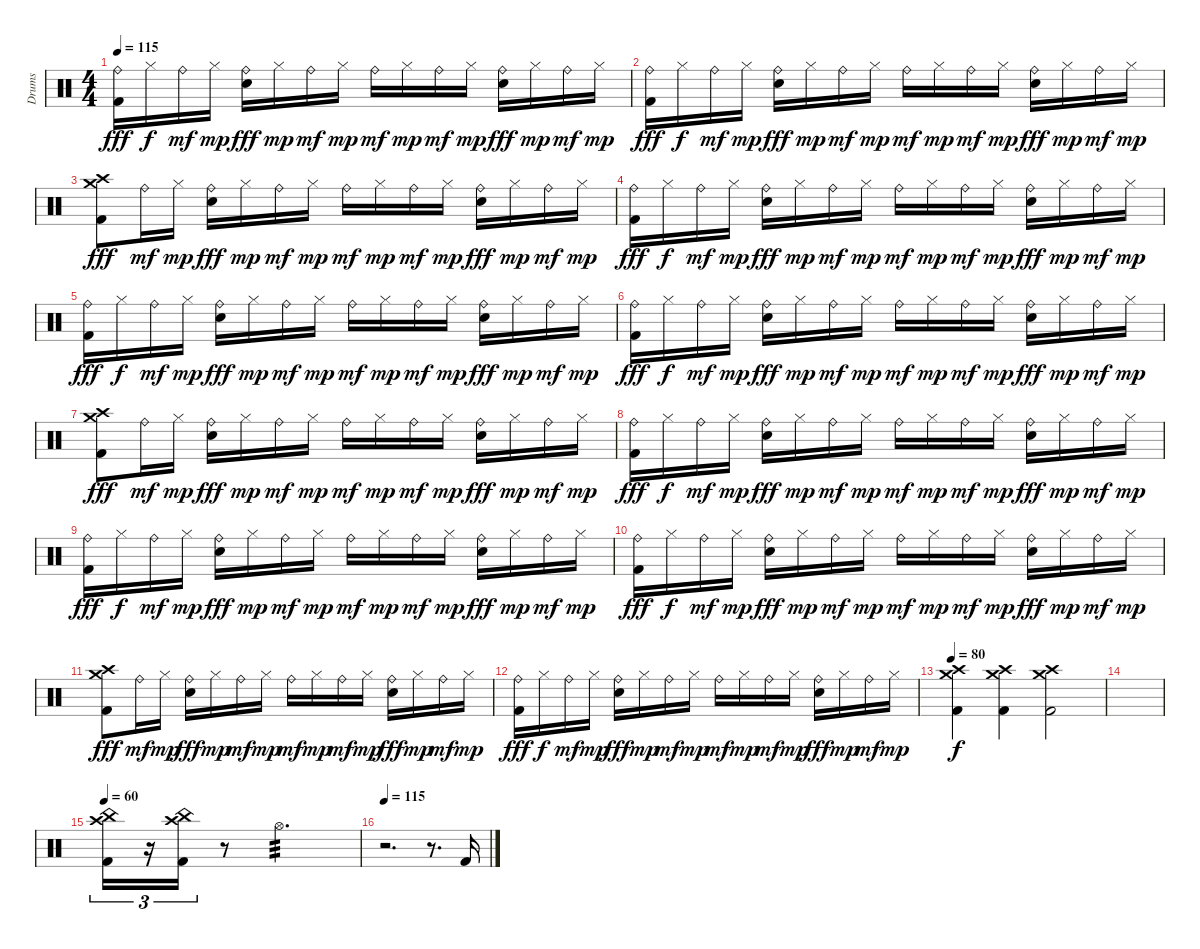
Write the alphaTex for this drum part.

\track ("Drums" "Drums") {instrument percussion}
\staff {score}
\articulation defaults
\ts (4 4)
\tempo 115
\clef neutral
\ks c
("Ride (bell)" "Kick (hit) 2").16{dy fff} "Hi-Hat (closed)".16{dy f} "Ride (bell)".16{dy mf} "Hi-Hat (closed)".16{dy mp} ("Ride (bell)" "Electric Snare (hit)").16{dy fff} "Hi-Hat (closed)".16{dy mp} "Ride (bell)".16{dy mf} "Hi-Hat (closed)".16{dy mp} "Ride (bell)".16{dy mf} "Hi-Hat (closed)".16{dy mp} "Ride (bell)".16{dy mf} "Hi-Hat (closed)".16{dy mp} ("Ride (bell)" "Electric Snare (hit)").16{dy fff} "Hi-Hat (closed)".16{dy mp} "Ride (bell)".16{dy mf} "Hi-Hat (closed)".16{dy mp} |
("Ride (bell)" "Kick (hit) 2").16{dy fff} "Hi-Hat (closed)".16{dy f} "Ride (bell)".16{dy mf} "Hi-Hat (closed)".16{dy mp} ("Ride (bell)" "Electric Snare (hit)").16{dy fff} "Hi-Hat (closed)".16{dy mp} "Ride (bell)".16{dy mf} "Hi-Hat (closed)".16{dy mp} "Ride (bell)".16{dy mf} "Hi-Hat (closed)".16{dy mp} "Ride (bell)".16{dy mf} "Hi-Hat (closed)".16{dy mp} ("Ride (bell)" "Electric Snare (hit)").16{dy fff} "Hi-Hat (closed)".16{dy mp} "Ride (bell)".16{dy mf} "Hi-Hat (closed)".16{dy mp} |
("Crash medium (hit)" "Crash high (hit)" "Kick (hit) 2").8{dy fff} "Ride (bell)".16{dy mf} "Hi-Hat (closed)".16{dy mp} ("Ride (bell)" "Electric Snare (hit)").16{dy fff} "Hi-Hat (closed)".16{dy mp} "Ride (bell)".16{dy mf} "Hi-Hat (closed)".16{dy mp} "Ride (bell)".16{dy mf} "Hi-Hat (closed)".16{dy mp} "Ride (bell)".16{dy mf} "Hi-Hat (closed)".16{dy mp} ("Ride (bell)" "Electric Snare (hit)").16{dy fff} "Hi-Hat (closed)".16{dy mp} "Ride (bell)".16{dy mf} "Hi-Hat (closed)".16{dy mp} |
("Ride (bell)" "Kick (hit) 2").16{dy fff} "Hi-Hat (closed)".16{dy f} "Ride (bell)".16{dy mf} "Hi-Hat (closed)".16{dy mp} ("Ride (bell)" "Electric Snare (hit)").16{dy fff} "Hi-Hat (closed)".16{dy mp} "Ride (bell)".16{dy mf} "Hi-Hat (closed)".16{dy mp} "Ride (bell)".16{dy mf} "Hi-Hat (closed)".16{dy mp} "Ride (bell)".16{dy mf} "Hi-Hat (closed)".16{dy mp} ("Ride (bell)" "Electric Snare (hit)").16{dy fff} "Hi-Hat (closed)".16{dy mp} "Ride (bell)".16{dy mf} "Hi-Hat (closed)".16{dy mp} |
("Ride (bell)" "Kick (hit) 2").16{dy fff} "Hi-Hat (closed)".16{dy f} "Ride (bell)".16{dy mf} "Hi-Hat (closed)".16{dy mp} ("Ride (bell)" "Electric Snare (hit)").16{dy fff} "Hi-Hat (closed)".16{dy mp} "Ride (bell)".16{dy mf} "Hi-Hat (closed)".16{dy mp} "Ride (bell)".16{dy mf} "Hi-Hat (closed)".16{dy mp} "Ride (bell)".16{dy mf} "Hi-Hat (closed)".16{dy mp} ("Ride (bell)" "Electric Snare (hit)").16{dy fff} "Hi-Hat (closed)".16{dy mp} "Ride (bell)".16{dy mf} "Hi-Hat (closed)".16{dy mp} |
("Ride (bell)" "Kick (hit) 2").16{dy fff} "Hi-Hat (closed)".16{dy f} "Ride (bell)".16{dy mf} "Hi-Hat (closed)".16{dy mp} ("Ride (bell)" "Electric Snare (hit)").16{dy fff} "Hi-Hat (closed)".16{dy mp} "Ride (bell)".16{dy mf} "Hi-Hat (closed)".16{dy mp} "Ride (bell)".16{dy mf} "Hi-Hat (closed)".16{dy mp} "Ride (bell)".16{dy mf} "Hi-Hat (closed)".16{dy mp} ("Ride (bell)" "Electric Snare (hit)").16{dy fff} "Hi-Hat (closed)".16{dy mp} "Ride (bell)".16{dy mf} "Hi-Hat (closed)".16{dy mp} |
("Crash medium (hit)" "Crash high (hit)" "Kick (hit) 2").8{dy fff} "Ride (bell)".16{dy mf} "Hi-Hat (closed)".16{dy mp} ("Ride (bell)" "Electric Snare (hit)").16{dy fff} "Hi-Hat (closed)".16{dy mp} "Ride (bell)".16{dy mf} "Hi-Hat (closed)".16{dy mp} "Ride (bell)".16{dy mf} "Hi-Hat (closed)".16{dy mp} "Ride (bell)".16{dy mf} "Hi-Hat (closed)".16{dy mp} ("Ride (bell)" "Electric Snare (hit)").16{dy fff} "Hi-Hat (closed)".16{dy mp} "Ride (bell)".16{dy mf} "Hi-Hat (closed)".16{dy mp} |
("Ride (bell)" "Kick (hit) 2").16{dy fff} "Hi-Hat (closed)".16{dy f} "Ride (bell)".16{dy mf} "Hi-Hat (closed)".16{dy mp} ("Ride (bell)" "Electric Snare (hit)").16{dy fff} "Hi-Hat (closed)".16{dy mp} "Ride (bell)".16{dy mf} "Hi-Hat (closed)".16{dy mp} "Ride (bell)".16{dy mf} "Hi-Hat (closed)".16{dy mp} "Ride (bell)".16{dy mf} "Hi-Hat (closed)".16{dy mp} ("Ride (bell)" "Electric Snare (hit)").16{dy fff} "Hi-Hat (closed)".16{dy mp} "Ride (bell)".16{dy mf} "Hi-Hat (closed)".16{dy mp} |
("Ride (bell)" "Kick (hit) 2").16{dy fff} "Hi-Hat (closed)".16{dy f} "Ride (bell)".16{dy mf} "Hi-Hat (closed)".16{dy mp} ("Ride (bell)" "Electric Snare (hit)").16{dy fff} "Hi-Hat (closed)".16{dy mp} "Ride (bell)".16{dy mf} "Hi-Hat (closed)".16{dy mp} "Ride (bell)".16{dy mf} "Hi-Hat (closed)".16{dy mp} "Ride (bell)".16{dy mf} "Hi-Hat (closed)".16{dy mp} ("Ride (bell)" "Electric Snare (hit)").16{dy fff} "Hi-Hat (closed)".16{dy mp} "Ride (bell)".16{dy mf} "Hi-Hat (closed)".16{dy mp} |
("Ride (bell)" "Kick (hit) 2").16{dy fff} "Hi-Hat (closed)".16{dy f} "Ride (bell)".16{dy mf} "Hi-Hat (closed)".16{dy mp} ("Ride (bell)" "Electric Snare (hit)").16{dy fff} "Hi-Hat (closed)".16{dy mp} "Ride (bell)".16{dy mf} "Hi-Hat (closed)".16{dy mp} "Ride (bell)".16{dy mf} "Hi-Hat (closed)".16{dy mp} "Ride (bell)".16{dy mf} "Hi-Hat (closed)".16{dy mp} ("Ride (bell)" "Electric Snare (hit)").16{dy fff} "Hi-Hat (closed)".16{dy mp} "Ride (bell)".16{dy mf} "Hi-Hat (closed)".16{dy mp} |
("Crash medium (hit)" "Crash high (hit)" "Kick (hit) 2").8{dy fff} "Ride (bell)".16{dy mf} "Hi-Hat (closed)".16{dy mp} ("Ride (bell)" "Electric Snare (hit)").16{dy fff} "Hi-Hat (closed)".16{dy mp} "Ride (bell)".16{dy mf} "Hi-Hat (closed)".16{dy mp} "Ride (bell)".16{dy mf} "Hi-Hat (closed)".16{dy mp} "Ride (bell)".16{dy mf} "Hi-Hat (closed)".16{dy mp} ("Ride (bell)" "Electric Snare (hit)").16{dy fff} "Hi-Hat (closed)".16{dy mp} "Ride (bell)".16{dy mf} "Hi-Hat (closed)".16{dy mp} |
("Ride (bell)" "Kick (hit) 2").16{dy fff} "Hi-Hat (closed)".16{dy f} "Ride (bell)".16{dy mf} "Hi-Hat (closed)".16{dy mp} ("Ride (bell)" "Electric Snare (hit)").16{dy fff} "Hi-Hat (closed)".16{dy mp} "Ride (bell)".16{dy mf} "Hi-Hat (closed)".16{dy mp} "Ride (bell)".16{dy mf} "Hi-Hat (closed)".16{dy mp} "Ride (bell)".16{dy mf} "Hi-Hat (closed)".16{dy mp} ("Ride (bell)" "Electric Snare (hit)").16{dy fff} "Hi-Hat (closed)".16{dy mp} "Ride (bell)".16{dy mf} "Hi-Hat (closed)".16{dy mp} |
\tempo 80
("Crash high (hit)" "Crash medium (hit)" "Kick (hit) 2").4{dy f} ("Crash high (hit)" "Crash medium (hit)" "Kick (hit) 2").4 ("Crash high (hit)" "Crash medium (hit)" "Kick (hit) 2").2 |
|
\tempo 60
("Crash high (hit)" "China (hit)" "Kick (hit) 2").16{tu (3 2)} r.16{tu (3 2)} ("Crash high (hit)" "China (hit)" "Kick (hit) 2").16{tu (3 2)} r.8 "Hi-Hat (open)".2{d tp 3} |
\tempo 115
r.2{d} r.8{d} "Kick (hit) 2".16
